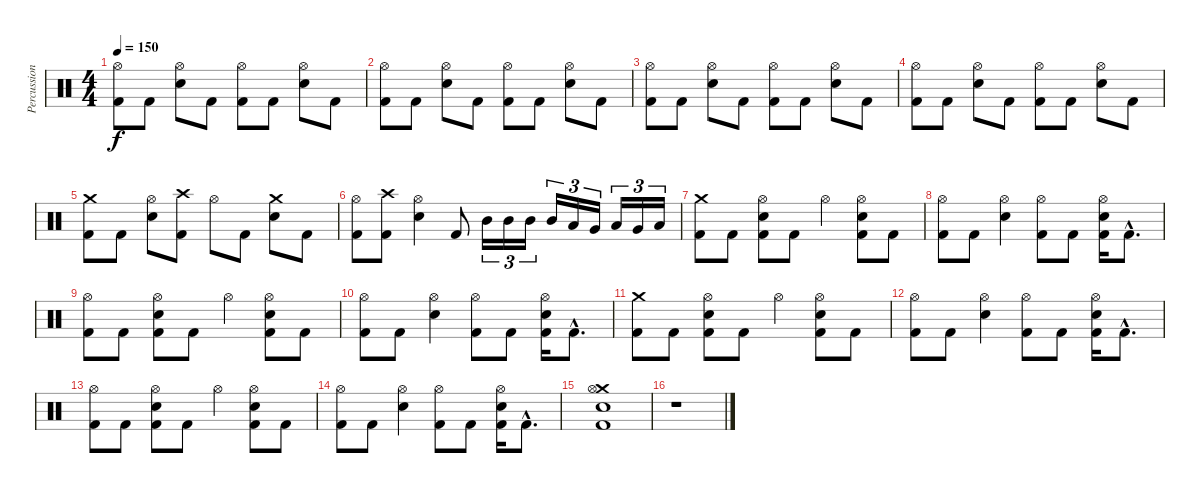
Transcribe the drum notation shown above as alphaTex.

\track ("Percussion" "Percussion") {instrument percussion}
\staff {score}
\articulation defaults
\ts (4 4)
\tempo 150
\clef neutral
\ks aminor
("Hi-Hat (open)" "Kick (hit) 2").8{dy f} "Kick (hit) 2".8 ("Hi-Hat (open)" "Electric Snare (hit)").8 "Kick (hit) 2".8 ("Hi-Hat (open)" "Kick (hit) 2").8 "Kick (hit) 2".8 ("Hi-Hat (open)" "Electric Snare (hit)").8 "Kick (hit) 2".8 |
("Hi-Hat (open)" "Kick (hit) 2").8 "Kick (hit) 2".8 ("Hi-Hat (open)" "Electric Snare (hit)").8 "Kick (hit) 2".8 ("Hi-Hat (open)" "Kick (hit) 2").8 "Kick (hit) 2".8 ("Hi-Hat (open)" "Electric Snare (hit)").8 "Kick (hit) 2".8 |
("Hi-Hat (open)" "Kick (hit) 2").8 "Kick (hit) 2".8 ("Hi-Hat (open)" "Electric Snare (hit)").8 "Kick (hit) 2".8 ("Hi-Hat (open)" "Kick (hit) 2").8 "Kick (hit) 2".8 ("Hi-Hat (open)" "Electric Snare (hit)").8 "Kick (hit) 2".8 |
("Hi-Hat (open)" "Kick (hit) 2").8 "Kick (hit) 2".8 ("Hi-Hat (open)" "Electric Snare (hit)").8 "Kick (hit) 2".8 ("Hi-Hat (open)" "Kick (hit) 2").8 "Kick (hit) 2".8 ("Hi-Hat (open)" "Electric Snare (hit)").8 "Kick (hit) 2".8 |
("Crash medium (hit)" "Kick (hit) 2").8 "Kick (hit) 2".8 ("Hi-Hat (open)" "Electric Snare (hit)").8 ("Crash high (hit)" "Kick (hit) 2").8 "Hi-Hat (open)".8 "Kick (hit) 2".8 ("Crash medium (hit)" "Electric Snare (hit)").8 "Kick (hit) 2".8 |
("Hi-Hat (open)" "Kick (hit) 2").8 ("Crash high (hit)" "Kick (hit) 2").8 ("Hi-Hat (open)" "Electric Snare (hit)").4 "Kick (hit) 2".8 "Mid Tom (hit)".16{tu (3 2)} "Mid Tom (hit)".16{tu (3 2)} "Mid Tom (hit)".16{tu (3 2)} "Mid Tom (hit)".16{tu (3 2)} "Low Tom (hit)".16{tu (3 2)} "Very Low Tom (hit)".16{tu (3 2)} "Low Tom (hit)".16{tu (3 2)} "Very Low Tom (hit)".16{tu (3 2)} "Low Floor Tom (hit)".16{tu (3 2)} |
("Crash medium (hit)" "Kick (hit) 2").8 "Kick (hit) 2".8 ("Hi-Hat (open)" "Electric Snare (hit)" "Kick (hit) 2").8 "Kick (hit) 2".8 "Hi-Hat (open)".4 ("Hi-Hat (open)" "Electric Snare (hit)" "Kick (hit) 2").8 "Kick (hit) 2".8 |
("Hi-Hat (open)" "Kick (hit) 2").8 "Kick (hit) 2".8 ("Hi-Hat (open)" "Electric Snare (hit)").4 ("Hi-Hat (open)" "Kick (hit) 2").8 "Kick (hit) 2".8 ("Hi-Hat (open)" "Electric Snare (hit)" "Kick (hit) 2").16 "Kick (hit) 2"{hac}.8{d} |
("Hi-Hat (open)" "Kick (hit) 2").8 "Kick (hit) 2".8 ("Hi-Hat (open)" "Electric Snare (hit)" "Kick (hit) 2").8 "Kick (hit) 2".8 "Hi-Hat (open)".4 ("Hi-Hat (open)" "Electric Snare (hit)" "Kick (hit) 2").8 "Kick (hit) 2".8 |
("Hi-Hat (open)" "Kick (hit) 2").8 "Kick (hit) 2".8 ("Hi-Hat (open)" "Electric Snare (hit)").4 ("Hi-Hat (open)" "Kick (hit) 2").8 "Kick (hit) 2".8 ("Hi-Hat (open)" "Electric Snare (hit)" "Kick (hit) 2").16 "Kick (hit) 2"{hac}.8{d} |
("Crash medium (hit)" "Kick (hit) 2").8 "Kick (hit) 2".8 ("Hi-Hat (open)" "Electric Snare (hit)" "Kick (hit) 2").8 "Kick (hit) 2".8 "Hi-Hat (open)".4 ("Hi-Hat (open)" "Electric Snare (hit)" "Kick (hit) 2").8 "Kick (hit) 2".8 |
("Hi-Hat (open)" "Kick (hit) 2").8 "Kick (hit) 2".8 ("Hi-Hat (open)" "Electric Snare (hit)").4 ("Hi-Hat (open)" "Kick (hit) 2").8 "Kick (hit) 2".8 ("Hi-Hat (open)" "Electric Snare (hit)" "Kick (hit) 2").16 "Kick (hit) 2"{hac}.8{d} |
("Hi-Hat (open)" "Kick (hit) 2").8 "Kick (hit) 2".8 ("Hi-Hat (open)" "Electric Snare (hit)" "Kick (hit) 2").8 "Kick (hit) 2".8 "Hi-Hat (open)".4 ("Hi-Hat (open)" "Electric Snare (hit)" "Kick (hit) 2").8 "Kick (hit) 2".8 |
("Hi-Hat (open)" "Kick (hit) 2").8 "Kick (hit) 2".8 ("Hi-Hat (open)" "Electric Snare (hit)").4 ("Hi-Hat (open)" "Kick (hit) 2").8 "Kick (hit) 2".8 ("Hi-Hat (open)" "Electric Snare (hit)" "Kick (hit) 2").16 "Kick (hit) 2"{hac}.8{d} |
("Crash medium (hit)" "Hi-Hat (open)" "Electric Snare (hit)" "Kick (hit) 2").1 |
r.1
